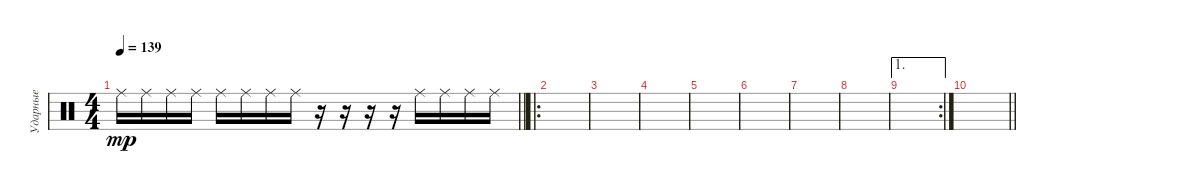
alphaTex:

\track ("Ударные" "Ударные") {instrument percussion}
\staff {score}
\articulation defaults
\ts (4 4)
\tempo 139
\clef neutral
\barLineRight lightlight
\ks c "Ride (middle)".16{dy mp} "Ride (middle)".16 "Ride (middle)".16 "Ride (middle)".16 "Ride (middle)".16 "Ride (middle)".16 "Ride (middle)".16 "Ride (middle)".16
r.16 r.16 r.16 r.16 "Ride (middle)".16 "Ride (middle)".16 "Ride (middle)".16 "Ride (middle)".16 |
\ro
|
|
|
|
|
|
|
\ae 1
\rc 2
|
\barLineRight lightlight
